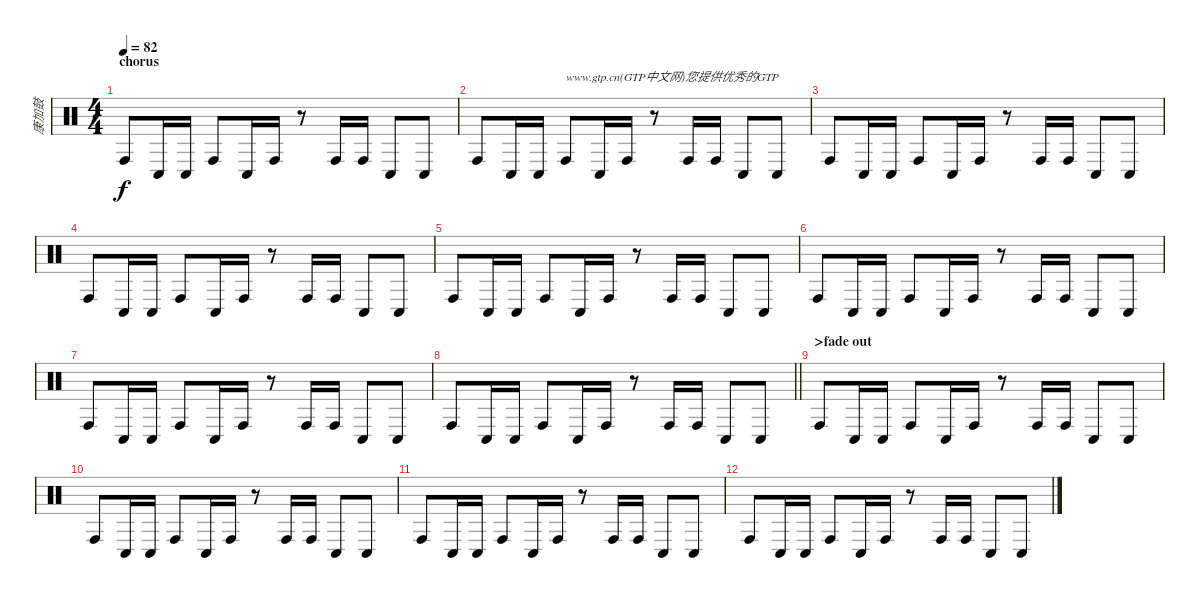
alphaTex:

\track ("康加鼓" "康加鼓") {instrument percussion}
\staff {score}
\articulation defaults
\ts (4 4)
\section ("" "chorus")
\tempo 82
\clef neutral
\ks c "Conga high (hit)".8{dy f} "Conga low (hit)".16 "Conga low (hit)".16 "Conga high (hit)".8 "Conga low (hit)".16 "Conga high (hit)".16
r.8 "Conga high (hit)".16 "Conga high (hit)".16 "Conga low (hit)".8 "Conga low (hit)".8 |
"Conga high (hit)".8 "Conga low (hit)".16 "Conga low (hit)".16 "Conga high (hit)".8{txt "www.gtp.cn(GTP中文网)您提供优秀的GTP"} "Conga low (hit)".16 "Conga high (hit)".16 r.8 "Conga high (hit)".16 "Conga high (hit)".16 "Conga low (hit)".8 "Conga low (hit)".8 |
"Conga high (hit)".8 "Conga low (hit)".16 "Conga low (hit)".16 "Conga high (hit)".8 "Conga low (hit)".16 "Conga high (hit)".16 r.8 "Conga high (hit)".16 "Conga high (hit)".16 "Conga low (hit)".8 "Conga low (hit)".8 |
"Conga high (hit)".8 "Conga low (hit)".16 "Conga low (hit)".16 "Conga high (hit)".8 "Conga low (hit)".16 "Conga high (hit)".16 r.8 "Conga high (hit)".16 "Conga high (hit)".16 "Conga low (hit)".8 "Conga low (hit)".8 |
"Conga high (hit)".8 "Conga low (hit)".16 "Conga low (hit)".16 "Conga high (hit)".8 "Conga low (hit)".16 "Conga high (hit)".16 r.8 "Conga high (hit)".16 "Conga high (hit)".16 "Conga low (hit)".8 "Conga low (hit)".8 |
"Conga high (hit)".8 "Conga low (hit)".16 "Conga low (hit)".16 "Conga high (hit)".8 "Conga low (hit)".16 "Conga high (hit)".16 r.8 "Conga high (hit)".16 "Conga high (hit)".16 "Conga low (hit)".8 "Conga low (hit)".8 |
"Conga high (hit)".8 "Conga low (hit)".16 "Conga low (hit)".16 "Conga high (hit)".8 "Conga low (hit)".16 "Conga high (hit)".16 r.8 "Conga high (hit)".16 "Conga high (hit)".16 "Conga low (hit)".8 "Conga low (hit)".8 |
\barLineRight lightlight "Conga high (hit)".8 "Conga low (hit)".16 "Conga low (hit)".16 "Conga high (hit)".8 "Conga low (hit)".16 "Conga high (hit)".16
r.8 "Conga high (hit)".16 "Conga high (hit)".16 "Conga low (hit)".8 "Conga low (hit)".8 |
\section ("" ">fade out")
"Conga high (hit)".8 "Conga low (hit)".16 "Conga low (hit)".16 "Conga high (hit)".8 "Conga low (hit)".16 "Conga high (hit)".16 r.8 "Conga high (hit)".16 "Conga high (hit)".16 "Conga low (hit)".8 "Conga low (hit)".8 |
"Conga high (hit)".8 "Conga low (hit)".16 "Conga low (hit)".16 "Conga high (hit)".8 "Conga low (hit)".16 "Conga high (hit)".16 r.8 "Conga high (hit)".16 "Conga high (hit)".16 "Conga low (hit)".8 "Conga low (hit)".8 |
"Conga high (hit)".8 "Conga low (hit)".16 "Conga low (hit)".16 "Conga high (hit)".8 "Conga low (hit)".16 "Conga high (hit)".16 r.8 "Conga high (hit)".16 "Conga high (hit)".16 "Conga low (hit)".8 "Conga low (hit)".8 |
"Conga high (hit)".8 "Conga low (hit)".16 "Conga low (hit)".16 "Conga high (hit)".8 "Conga low (hit)".16 "Conga high (hit)".16 r.8 "Conga high (hit)".16 "Conga high (hit)".16 "Conga low (hit)".8 "Conga low (hit)".8
